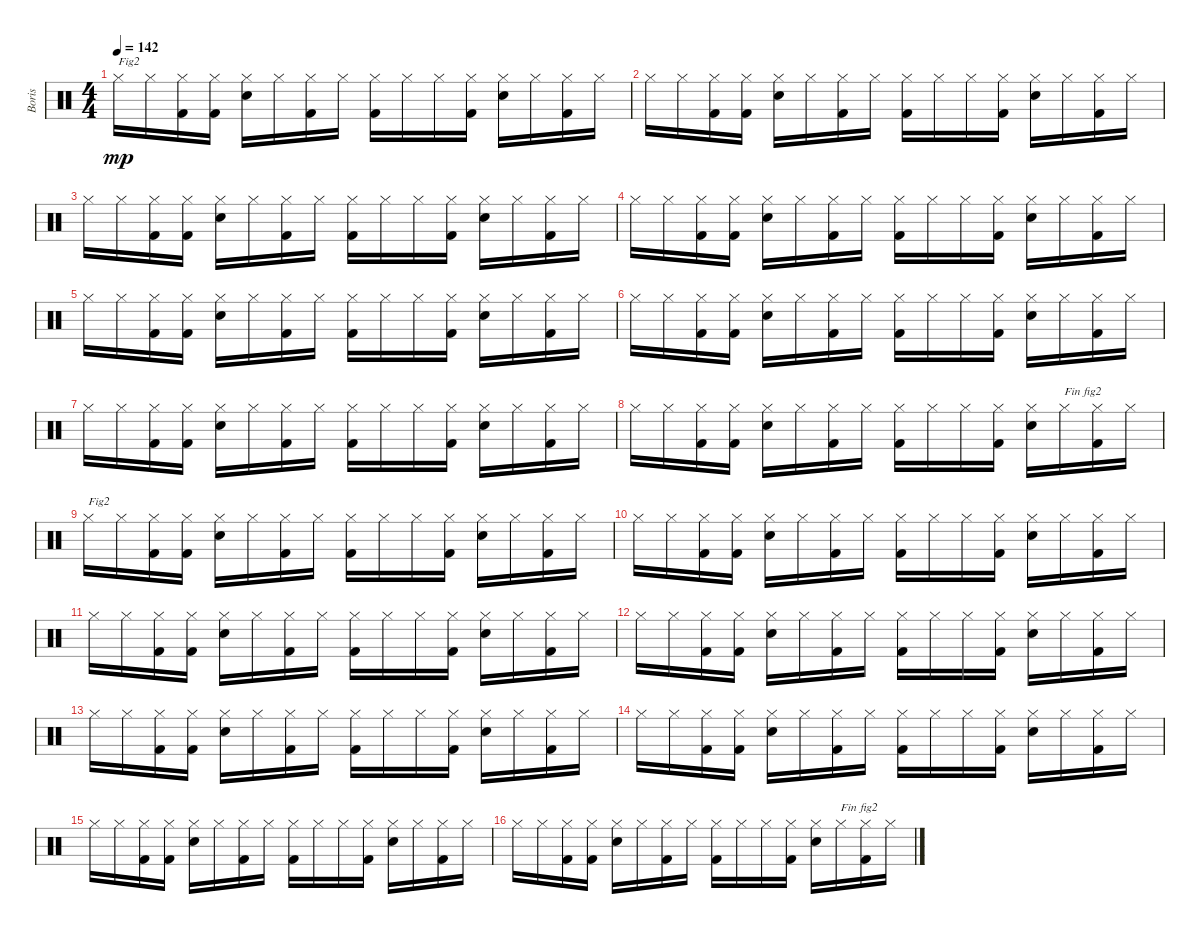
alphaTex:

\track ("Boris" "Boris") {instrument percussion}
\staff {score}
\articulation defaults
\ts (4 4)
\tempo 142
\clef neutral
\ks c "Hi-Hat (closed)".16{txt "Fig2" dy mp} "Hi-Hat (closed)".16
("Kick (hit) 2" "Hi-Hat (closed)").16 ("Kick (hit) 2" "Hi-Hat (closed)").16 ("Snare (hit) 2" "Hi-Hat (closed)").16 "Hi-Hat (closed)".16 ("Kick (hit) 2" "Hi-Hat (closed)").16 "Hi-Hat (closed)".16 ("Kick (hit) 2" "Hi-Hat (closed)").16 "Hi-Hat (closed)".16 "Hi-Hat (closed)".16 ("Kick (hit) 2" "Hi-Hat (closed)").16 ("Snare (hit) 2" "Hi-Hat (closed)").16 "Hi-Hat (closed)".16 ("Kick (hit) 2" "Hi-Hat (closed)").16 "Hi-Hat (closed)".16 |
"Hi-Hat (closed)".16 "Hi-Hat (closed)".16 ("Kick (hit) 2" "Hi-Hat (closed)").16 ("Kick (hit) 2" "Hi-Hat (closed)").16 ("Snare (hit) 2" "Hi-Hat (closed)").16 "Hi-Hat (closed)".16 ("Kick (hit) 2" "Hi-Hat (closed)").16 "Hi-Hat (closed)".16 ("Kick (hit) 2" "Hi-Hat (closed)").16 "Hi-Hat (closed)".16 "Hi-Hat (closed)".16 ("Kick (hit) 2" "Hi-Hat (closed)").16 ("Snare (hit) 2" "Hi-Hat (closed)").16 "Hi-Hat (closed)".16 ("Kick (hit) 2" "Hi-Hat (closed)").16 "Hi-Hat (closed)".16 |
"Hi-Hat (closed)".16 "Hi-Hat (closed)".16 ("Kick (hit) 2" "Hi-Hat (closed)").16 ("Kick (hit) 2" "Hi-Hat (closed)").16 ("Snare (hit) 2" "Hi-Hat (closed)").16 "Hi-Hat (closed)".16 ("Kick (hit) 2" "Hi-Hat (closed)").16 "Hi-Hat (closed)".16 ("Kick (hit) 2" "Hi-Hat (closed)").16 "Hi-Hat (closed)".16 "Hi-Hat (closed)".16 ("Kick (hit) 2" "Hi-Hat (closed)").16 ("Snare (hit) 2" "Hi-Hat (closed)").16 "Hi-Hat (closed)".16 ("Kick (hit) 2" "Hi-Hat (closed)").16 "Hi-Hat (closed)".16 |
"Hi-Hat (closed)".16 "Hi-Hat (closed)".16 ("Kick (hit) 2" "Hi-Hat (closed)").16 ("Kick (hit) 2" "Hi-Hat (closed)").16 ("Snare (hit) 2" "Hi-Hat (closed)").16 "Hi-Hat (closed)".16 ("Kick (hit) 2" "Hi-Hat (closed)").16 "Hi-Hat (closed)".16 ("Kick (hit) 2" "Hi-Hat (closed)").16 "Hi-Hat (closed)".16 "Hi-Hat (closed)".16 ("Kick (hit) 2" "Hi-Hat (closed)").16 ("Snare (hit) 2" "Hi-Hat (closed)").16 "Hi-Hat (closed)".16 ("Kick (hit) 2" "Hi-Hat (closed)").16 "Hi-Hat (closed)".16 |
"Hi-Hat (closed)".16 "Hi-Hat (closed)".16 ("Kick (hit) 2" "Hi-Hat (closed)").16 ("Kick (hit) 2" "Hi-Hat (closed)").16 ("Snare (hit) 2" "Hi-Hat (closed)").16 "Hi-Hat (closed)".16 ("Kick (hit) 2" "Hi-Hat (closed)").16 "Hi-Hat (closed)".16 ("Kick (hit) 2" "Hi-Hat (closed)").16 "Hi-Hat (closed)".16 "Hi-Hat (closed)".16 ("Kick (hit) 2" "Hi-Hat (closed)").16 ("Snare (hit) 2" "Hi-Hat (closed)").16 "Hi-Hat (closed)".16 ("Kick (hit) 2" "Hi-Hat (closed)").16 "Hi-Hat (closed)".16 |
"Hi-Hat (closed)".16 "Hi-Hat (closed)".16 ("Kick (hit) 2" "Hi-Hat (closed)").16 ("Kick (hit) 2" "Hi-Hat (closed)").16 ("Snare (hit) 2" "Hi-Hat (closed)").16 "Hi-Hat (closed)".16 ("Kick (hit) 2" "Hi-Hat (closed)").16 "Hi-Hat (closed)".16 ("Kick (hit) 2" "Hi-Hat (closed)").16 "Hi-Hat (closed)".16 "Hi-Hat (closed)".16 ("Kick (hit) 2" "Hi-Hat (closed)").16 ("Snare (hit) 2" "Hi-Hat (closed)").16 "Hi-Hat (closed)".16 ("Kick (hit) 2" "Hi-Hat (closed)").16 "Hi-Hat (closed)".16 |
"Hi-Hat (closed)".16 "Hi-Hat (closed)".16 ("Kick (hit) 2" "Hi-Hat (closed)").16 ("Kick (hit) 2" "Hi-Hat (closed)").16 ("Snare (hit) 2" "Hi-Hat (closed)").16 "Hi-Hat (closed)".16 ("Kick (hit) 2" "Hi-Hat (closed)").16 "Hi-Hat (closed)".16 ("Kick (hit) 2" "Hi-Hat (closed)").16 "Hi-Hat (closed)".16 "Hi-Hat (closed)".16 ("Kick (hit) 2" "Hi-Hat (closed)").16 ("Snare (hit) 2" "Hi-Hat (closed)").16 "Hi-Hat (closed)".16 ("Kick (hit) 2" "Hi-Hat (closed)").16 "Hi-Hat (closed)".16 |
"Hi-Hat (closed)".16 "Hi-Hat (closed)".16 ("Kick (hit) 2" "Hi-Hat (closed)").16 ("Kick (hit) 2" "Hi-Hat (closed)").16 ("Snare (hit) 2" "Hi-Hat (closed)").16 "Hi-Hat (closed)".16 ("Kick (hit) 2" "Hi-Hat (closed)").16 "Hi-Hat (closed)".16 ("Kick (hit) 2" "Hi-Hat (closed)").16 "Hi-Hat (closed)".16 "Hi-Hat (closed)".16 ("Kick (hit) 2" "Hi-Hat (closed)").16 ("Snare (hit) 2" "Hi-Hat (closed)").16 "Hi-Hat (closed)".16{txt "Fin fig2"} ("Kick (hit) 2" "Hi-Hat (closed)").16 "Hi-Hat (closed)".16 |
"Hi-Hat (closed)".16{txt "Fig2"} "Hi-Hat (closed)".16 ("Kick (hit) 2" "Hi-Hat (closed)").16 ("Kick (hit) 2" "Hi-Hat (closed)").16 ("Snare (hit) 2" "Hi-Hat (closed)").16 "Hi-Hat (closed)".16 ("Kick (hit) 2" "Hi-Hat (closed)").16 "Hi-Hat (closed)".16 ("Kick (hit) 2" "Hi-Hat (closed)").16 "Hi-Hat (closed)".16 "Hi-Hat (closed)".16 ("Kick (hit) 2" "Hi-Hat (closed)").16 ("Snare (hit) 2" "Hi-Hat (closed)").16 "Hi-Hat (closed)".16 ("Kick (hit) 2" "Hi-Hat (closed)").16 "Hi-Hat (closed)".16 |
"Hi-Hat (closed)".16 "Hi-Hat (closed)".16 ("Kick (hit) 2" "Hi-Hat (closed)").16 ("Kick (hit) 2" "Hi-Hat (closed)").16 ("Snare (hit) 2" "Hi-Hat (closed)").16 "Hi-Hat (closed)".16 ("Kick (hit) 2" "Hi-Hat (closed)").16 "Hi-Hat (closed)".16 ("Kick (hit) 2" "Hi-Hat (closed)").16 "Hi-Hat (closed)".16 "Hi-Hat (closed)".16 ("Kick (hit) 2" "Hi-Hat (closed)").16 ("Snare (hit) 2" "Hi-Hat (closed)").16 "Hi-Hat (closed)".16 ("Kick (hit) 2" "Hi-Hat (closed)").16 "Hi-Hat (closed)".16 |
"Hi-Hat (closed)".16 "Hi-Hat (closed)".16 ("Kick (hit) 2" "Hi-Hat (closed)").16 ("Kick (hit) 2" "Hi-Hat (closed)").16 ("Snare (hit) 2" "Hi-Hat (closed)").16 "Hi-Hat (closed)".16 ("Kick (hit) 2" "Hi-Hat (closed)").16 "Hi-Hat (closed)".16 ("Kick (hit) 2" "Hi-Hat (closed)").16 "Hi-Hat (closed)".16 "Hi-Hat (closed)".16 ("Kick (hit) 2" "Hi-Hat (closed)").16 ("Snare (hit) 2" "Hi-Hat (closed)").16 "Hi-Hat (closed)".16 ("Kick (hit) 2" "Hi-Hat (closed)").16 "Hi-Hat (closed)".16 |
"Hi-Hat (closed)".16 "Hi-Hat (closed)".16 ("Kick (hit) 2" "Hi-Hat (closed)").16 ("Kick (hit) 2" "Hi-Hat (closed)").16 ("Snare (hit) 2" "Hi-Hat (closed)").16 "Hi-Hat (closed)".16 ("Kick (hit) 2" "Hi-Hat (closed)").16 "Hi-Hat (closed)".16 ("Kick (hit) 2" "Hi-Hat (closed)").16 "Hi-Hat (closed)".16 "Hi-Hat (closed)".16 ("Kick (hit) 2" "Hi-Hat (closed)").16 ("Snare (hit) 2" "Hi-Hat (closed)").16 "Hi-Hat (closed)".16 ("Kick (hit) 2" "Hi-Hat (closed)").16 "Hi-Hat (closed)".16 |
"Hi-Hat (closed)".16 "Hi-Hat (closed)".16 ("Kick (hit) 2" "Hi-Hat (closed)").16 ("Kick (hit) 2" "Hi-Hat (closed)").16 ("Snare (hit) 2" "Hi-Hat (closed)").16 "Hi-Hat (closed)".16 ("Kick (hit) 2" "Hi-Hat (closed)").16 "Hi-Hat (closed)".16 ("Kick (hit) 2" "Hi-Hat (closed)").16 "Hi-Hat (closed)".16 "Hi-Hat (closed)".16 ("Kick (hit) 2" "Hi-Hat (closed)").16 ("Snare (hit) 2" "Hi-Hat (closed)").16 "Hi-Hat (closed)".16 ("Kick (hit) 2" "Hi-Hat (closed)").16 "Hi-Hat (closed)".16 |
"Hi-Hat (closed)".16 "Hi-Hat (closed)".16 ("Kick (hit) 2" "Hi-Hat (closed)").16 ("Kick (hit) 2" "Hi-Hat (closed)").16 ("Snare (hit) 2" "Hi-Hat (closed)").16 "Hi-Hat (closed)".16 ("Kick (hit) 2" "Hi-Hat (closed)").16 "Hi-Hat (closed)".16 ("Kick (hit) 2" "Hi-Hat (closed)").16 "Hi-Hat (closed)".16 "Hi-Hat (closed)".16 ("Kick (hit) 2" "Hi-Hat (closed)").16 ("Snare (hit) 2" "Hi-Hat (closed)").16 "Hi-Hat (closed)".16 ("Kick (hit) 2" "Hi-Hat (closed)").16 "Hi-Hat (closed)".16 |
"Hi-Hat (closed)".16 "Hi-Hat (closed)".16 ("Kick (hit) 2" "Hi-Hat (closed)").16 ("Kick (hit) 2" "Hi-Hat (closed)").16 ("Snare (hit) 2" "Hi-Hat (closed)").16 "Hi-Hat (closed)".16 ("Kick (hit) 2" "Hi-Hat (closed)").16 "Hi-Hat (closed)".16 ("Kick (hit) 2" "Hi-Hat (closed)").16 "Hi-Hat (closed)".16 "Hi-Hat (closed)".16 ("Kick (hit) 2" "Hi-Hat (closed)").16 ("Snare (hit) 2" "Hi-Hat (closed)").16 "Hi-Hat (closed)".16 ("Kick (hit) 2" "Hi-Hat (closed)").16 "Hi-Hat (closed)".16 |
"Hi-Hat (closed)".16 "Hi-Hat (closed)".16 ("Kick (hit) 2" "Hi-Hat (closed)").16 ("Kick (hit) 2" "Hi-Hat (closed)").16 ("Snare (hit) 2" "Hi-Hat (closed)").16 "Hi-Hat (closed)".16 ("Kick (hit) 2" "Hi-Hat (closed)").16 "Hi-Hat (closed)".16 ("Kick (hit) 2" "Hi-Hat (closed)").16 "Hi-Hat (closed)".16 "Hi-Hat (closed)".16 ("Kick (hit) 2" "Hi-Hat (closed)").16 ("Snare (hit) 2" "Hi-Hat (closed)").16 "Hi-Hat (closed)".16{txt "Fin fig2"} ("Kick (hit) 2" "Hi-Hat (closed)").16 "Hi-Hat (closed)".16
